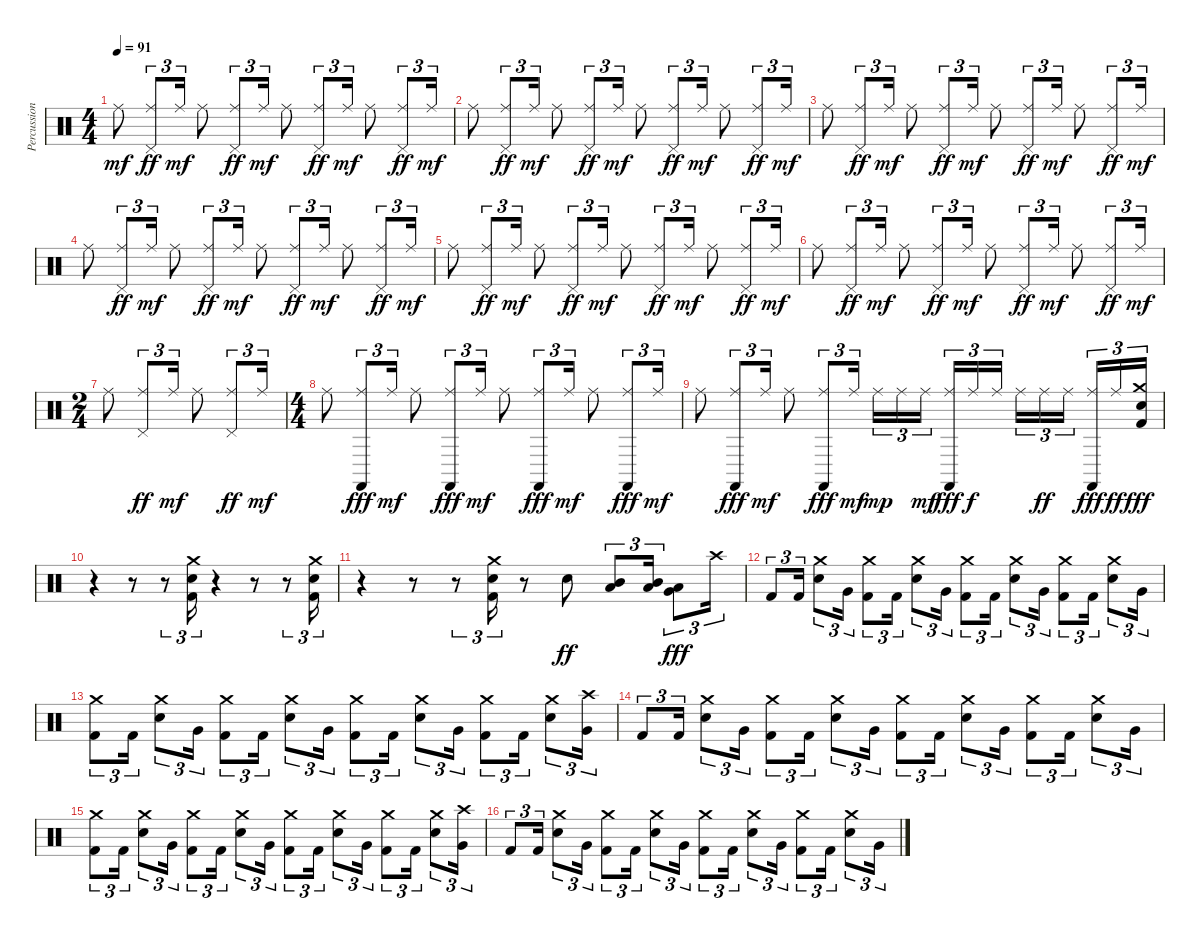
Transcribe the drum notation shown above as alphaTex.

\track ("Percussion" "Percussion") {instrument percussion}
\staff {score}
\articulation defaults
\ts (4 4)
\tempo 91
\clef neutral
\ks c "Ride (middle)".8{dy mf}
("Ride (middle)" "Pedal Hi-Hat (hit)").8{tu (3 2) dy ff} "Ride (middle)".16{tu (3 2) dy mf} "Ride (middle)".8 ("Ride (middle)" "Pedal Hi-Hat (hit)").8{tu (3 2) dy ff} "Ride (middle)".16{tu (3 2) dy mf} "Ride (middle)".8 ("Ride (middle)" "Pedal Hi-Hat (hit)").8{tu (3 2) dy ff} "Ride (middle)".16{tu (3 2) dy mf} "Ride (middle)".8 ("Ride (middle)" "Pedal Hi-Hat (hit)").8{tu (3 2) dy ff} "Ride (middle)".16{tu (3 2) dy mf} |
"Ride (middle)".8 ("Ride (middle)" "Pedal Hi-Hat (hit)").8{tu (3 2) dy ff} "Ride (middle)".16{tu (3 2) dy mf} "Ride (middle)".8 ("Ride (middle)" "Pedal Hi-Hat (hit)").8{tu (3 2) dy ff} "Ride (middle)".16{tu (3 2) dy mf} "Ride (middle)".8 ("Ride (middle)" "Pedal Hi-Hat (hit)").8{tu (3 2) dy ff} "Ride (middle)".16{tu (3 2) dy mf} "Ride (middle)".8 ("Ride (middle)" "Pedal Hi-Hat (hit)").8{tu (3 2) dy ff} "Ride (middle)".16{tu (3 2) dy mf} |
"Ride (middle)".8 ("Ride (middle)" "Pedal Hi-Hat (hit)").8{tu (3 2) dy ff} "Ride (middle)".16{tu (3 2) dy mf} "Ride (middle)".8 ("Ride (middle)" "Pedal Hi-Hat (hit)").8{tu (3 2) dy ff} "Ride (middle)".16{tu (3 2) dy mf} "Ride (middle)".8 ("Ride (middle)" "Pedal Hi-Hat (hit)").8{tu (3 2) dy ff} "Ride (middle)".16{tu (3 2) dy mf} "Ride (middle)".8 ("Ride (middle)" "Pedal Hi-Hat (hit)").8{tu (3 2) dy ff} "Ride (middle)".16{tu (3 2) dy mf} |
"Ride (middle)".8 ("Ride (middle)" "Pedal Hi-Hat (hit)").8{tu (3 2) dy ff} "Ride (middle)".16{tu (3 2) dy mf} "Ride (middle)".8 ("Ride (middle)" "Pedal Hi-Hat (hit)").8{tu (3 2) dy ff} "Ride (middle)".16{tu (3 2) dy mf} "Ride (middle)".8 ("Ride (middle)" "Pedal Hi-Hat (hit)").8{tu (3 2) dy ff} "Ride (middle)".16{tu (3 2) dy mf} "Ride (middle)".8 ("Ride (middle)" "Pedal Hi-Hat (hit)").8{tu (3 2) dy ff} "Ride (middle)".16{tu (3 2) dy mf} |
"Ride (middle)".8 ("Ride (middle)" "Pedal Hi-Hat (hit)").8{tu (3 2) dy ff} "Ride (middle)".16{tu (3 2) dy mf} "Ride (middle)".8 ("Ride (middle)" "Pedal Hi-Hat (hit)").8{tu (3 2) dy ff} "Ride (middle)".16{tu (3 2) dy mf} "Ride (middle)".8 ("Ride (middle)" "Pedal Hi-Hat (hit)").8{tu (3 2) dy ff} "Ride (middle)".16{tu (3 2) dy mf} "Ride (middle)".8 ("Ride (middle)" "Pedal Hi-Hat (hit)").8{tu (3 2) dy ff} "Ride (middle)".16{tu (3 2) dy mf} |
"Ride (middle)".8 ("Ride (middle)" "Pedal Hi-Hat (hit)").8{tu (3 2) dy ff} "Ride (middle)".16{tu (3 2) dy mf} "Ride (middle)".8 ("Ride (middle)" "Pedal Hi-Hat (hit)").8{tu (3 2) dy ff} "Ride (middle)".16{tu (3 2) dy mf} "Ride (middle)".8 ("Ride (middle)" "Pedal Hi-Hat (hit)").8{tu (3 2) dy ff} "Ride (middle)".16{tu (3 2) dy mf} "Ride (middle)".8 ("Ride (middle)" "Pedal Hi-Hat (hit)").8{tu (3 2) dy ff} "Ride (middle)".16{tu (3 2) dy mf} |
\ts (2 4)
"Ride (middle)".8 ("Ride (middle)" "Pedal Hi-Hat (hit)").8{tu (3 2) dy ff} "Ride (middle)".16{tu (3 2) dy mf} "Ride (middle)".8 ("Ride (middle)" "Pedal Hi-Hat (hit)").8{tu (3 2) dy ff} "Ride (middle)".16{tu (3 2) dy mf} |
\ts (4 4)
"Ride (middle)".8 ("Ride (middle)" "Castanets (hit)").8{tu (3 2) dy fff} "Ride (middle)".16{tu (3 2) dy mf} "Ride (middle)".8 ("Ride (middle)" "Castanets (hit)").8{tu (3 2) dy fff} "Ride (middle)".16{tu (3 2) dy mf} "Ride (middle)".8 ("Ride (middle)" "Castanets (hit)").8{tu (3 2) dy fff} "Ride (middle)".16{tu (3 2) dy mf} "Ride (middle)".8 ("Ride (middle)" "Castanets (hit)").8{tu (3 2) dy fff} "Ride (middle)".16{tu (3 2) dy mf} |
"Ride (middle)".8 ("Ride (middle)" "Castanets (hit)").8{tu (3 2) dy fff} "Ride (middle)".16{tu (3 2) dy mf} "Ride (middle)".8 ("Ride (middle)" "Castanets (hit)").8{tu (3 2) dy fff} "Ride (middle)".16{tu (3 2) dy mf} "Ride (middle)".16{tu (3 2) dy mp} "Ride (middle)".16{tu (3 2)} "Ride (middle)".16{tu (3 2) dy mf beam splitsecondary} ("Ride (middle)" "Castanets (hit)").16{tu (3 2) dy fff} "Ride (middle)".16{tu (3 2) dy f} "Ride (middle)".16{tu (3 2)} "Ride (middle)".16{tu (3 2)} "Ride (middle)".16{tu (3 2) dy ff} "Ride (middle)".16{tu (3 2) beam splitsecondary} ("Ride (middle)" "Castanets (hit)").16{tu (3 2) dy fff} "Ride (middle)".16{tu (3 2) dy ff} ("Crash medium (hit)" "Electric Snare (hit)" "Kick (hit) 2").16{tu (3 2) dy fff} |
r.4 r.8 r.8{tu (3 2)} ("Crash medium (hit)" "Electric Snare (hit)" "Kick (hit) 2").16{tu (3 2)} r.4 r.8 r.8{tu (3 2)} ("Crash medium (hit)" "Electric Snare (hit)" "Kick (hit) 2").16{tu (3 2)} |
r.4 r.8 r.8{tu (3 2)} ("Crash medium (hit)" "Electric Snare (hit)" "Kick (hit) 2").16{tu (3 2)} r.8 "Electric Snare (hit)".8{dy ff} ("Mid Tom (hit)" "Low Tom (hit)").8{tu (3 2)} ("Mid Tom (hit)" "Low Tom (hit)").16{tu (3 2)} ("Low Tom (hit)" "Very Low Tom (hit)").8{tu (3 2) dy fff} "Crash high (hit)".16{tu (3 2)} |
"Kick (hit) 2".8{tu (3 2)} "Kick (hit) 2".16{tu (3 2)} ("Crash medium (hit)" "Electric Snare (hit)").8{tu (3 2)} "Very Low Tom (hit)".16{tu (3 2)} ("Crash medium (hit)" "Kick (hit) 2").8{tu (3 2)} "Kick (hit) 2".16{tu (3 2)} ("Crash medium (hit)" "Electric Snare (hit)").8{tu (3 2)} "Very Low Tom (hit)".16{tu (3 2)} ("Crash medium (hit)" "Kick (hit) 2").8{tu (3 2)} "Kick (hit) 2".16{tu (3 2)} ("Crash medium (hit)" "Electric Snare (hit)").8{tu (3 2)} "Very Low Tom (hit)".16{tu (3 2)} ("Crash medium (hit)" "Kick (hit) 2").8{tu (3 2)} "Kick (hit) 2".16{tu (3 2)} ("Crash medium (hit)" "Electric Snare (hit)").8{tu (3 2)} "Very Low Tom (hit)".16{tu (3 2)} |
("Crash medium (hit)" "Kick (hit) 2").8{tu (3 2)} "Kick (hit) 2".16{tu (3 2)} ("Crash medium (hit)" "Electric Snare (hit)").8{tu (3 2)} "Very Low Tom (hit)".16{tu (3 2)} ("Crash medium (hit)" "Kick (hit) 2").8{tu (3 2)} "Kick (hit) 2".16{tu (3 2)} ("Crash medium (hit)" "Electric Snare (hit)").8{tu (3 2)} "Very Low Tom (hit)".16{tu (3 2)} ("Crash medium (hit)" "Kick (hit) 2").8{tu (3 2)} "Kick (hit) 2".16{tu (3 2)} ("Crash medium (hit)" "Electric Snare (hit)").8{tu (3 2)} "Very Low Tom (hit)".16{tu (3 2)} ("Crash medium (hit)" "Kick (hit) 2").8{tu (3 2)} "Kick (hit) 2".16{tu (3 2)} ("Crash medium (hit)" "Electric Snare (hit)").8{tu (3 2)} ("Crash high (hit)" "Very Low Tom (hit)").16{tu (3 2)} |
"Kick (hit) 2".8{tu (3 2)} "Kick (hit) 2".16{tu (3 2)} ("Crash medium (hit)" "Electric Snare (hit)").8{tu (3 2)} "Very Low Tom (hit)".16{tu (3 2)} ("Crash medium (hit)" "Kick (hit) 2").8{tu (3 2)} "Kick (hit) 2".16{tu (3 2)} ("Crash medium (hit)" "Electric Snare (hit)").8{tu (3 2)} "Very Low Tom (hit)".16{tu (3 2)} ("Crash medium (hit)" "Kick (hit) 2").8{tu (3 2)} "Kick (hit) 2".16{tu (3 2)} ("Crash medium (hit)" "Electric Snare (hit)").8{tu (3 2)} "Very Low Tom (hit)".16{tu (3 2)} ("Crash medium (hit)" "Kick (hit) 2").8{tu (3 2)} "Kick (hit) 2".16{tu (3 2)} ("Crash medium (hit)" "Electric Snare (hit)").8{tu (3 2)} "Very Low Tom (hit)".16{tu (3 2)} |
("Crash medium (hit)" "Kick (hit) 2").8{tu (3 2)} "Kick (hit) 2".16{tu (3 2)} ("Crash medium (hit)" "Electric Snare (hit)").8{tu (3 2)} "Very Low Tom (hit)".16{tu (3 2)} ("Crash medium (hit)" "Kick (hit) 2").8{tu (3 2)} "Kick (hit) 2".16{tu (3 2)} ("Crash medium (hit)" "Electric Snare (hit)").8{tu (3 2)} "Very Low Tom (hit)".16{tu (3 2)} ("Crash medium (hit)" "Kick (hit) 2").8{tu (3 2)} "Kick (hit) 2".16{tu (3 2)} ("Crash medium (hit)" "Electric Snare (hit)").8{tu (3 2)} "Very Low Tom (hit)".16{tu (3 2)} ("Crash medium (hit)" "Kick (hit) 2").8{tu (3 2)} "Kick (hit) 2".16{tu (3 2)} ("Crash medium (hit)" "Electric Snare (hit)").8{tu (3 2)} ("Crash high (hit)" "Very Low Tom (hit)").16{tu (3 2)} |
"Kick (hit) 2".8{tu (3 2)} "Kick (hit) 2".16{tu (3 2)} ("Crash medium (hit)" "Electric Snare (hit)").8{tu (3 2)} "Very Low Tom (hit)".16{tu (3 2)} ("Crash medium (hit)" "Kick (hit) 2").8{tu (3 2)} "Kick (hit) 2".16{tu (3 2)} ("Crash medium (hit)" "Electric Snare (hit)").8{tu (3 2)} "Very Low Tom (hit)".16{tu (3 2)} ("Crash medium (hit)" "Kick (hit) 2").8{tu (3 2)} "Kick (hit) 2".16{tu (3 2)} ("Crash medium (hit)" "Electric Snare (hit)").8{tu (3 2)} "Very Low Tom (hit)".16{tu (3 2)} ("Crash medium (hit)" "Kick (hit) 2").8{tu (3 2)} "Kick (hit) 2".16{tu (3 2)} ("Crash medium (hit)" "Electric Snare (hit)").8{tu (3 2)} "Very Low Tom (hit)".16{tu (3 2)}
